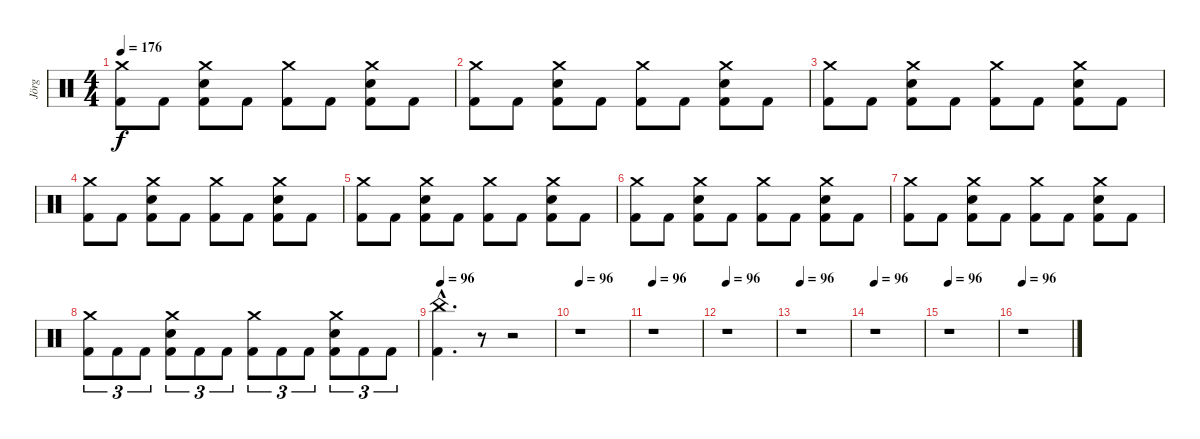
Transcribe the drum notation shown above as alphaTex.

\track ("Jörg" "Jörg") {instrument percussion}
\staff {score}
\articulation defaults
\ts (4 4)
\tempo 176
\clef neutral
\ks c
("Crash medium (hit)" "Kick (hit) 2").8{dy f} "Kick (hit) 2".8 ("Kick (hit) 2" "Crash medium (hit)" "Snare (hit) 2").8 "Kick (hit) 2".8 ("Crash medium (hit)" "Kick (hit) 2").8 "Kick (hit) 2".8 ("Kick (hit) 2" "Crash medium (hit)" "Snare (hit) 2").8 "Kick (hit) 2".8 |
("Crash medium (hit)" "Kick (hit) 2").8 "Kick (hit) 2".8 ("Kick (hit) 2" "Crash medium (hit)" "Snare (hit) 2").8 "Kick (hit) 2".8 ("Crash medium (hit)" "Kick (hit) 2").8 "Kick (hit) 2".8 ("Kick (hit) 2" "Crash medium (hit)" "Snare (hit) 2").8 "Kick (hit) 2".8 |
("Crash medium (hit)" "Kick (hit) 2").8 "Kick (hit) 2".8 ("Kick (hit) 2" "Crash medium (hit)" "Snare (hit) 2").8 "Kick (hit) 2".8 ("Crash medium (hit)" "Kick (hit) 2").8 "Kick (hit) 2".8 ("Kick (hit) 2" "Crash medium (hit)" "Snare (hit) 2").8 "Kick (hit) 2".8 |
("Crash medium (hit)" "Kick (hit) 2").8 "Kick (hit) 2".8 ("Kick (hit) 2" "Crash medium (hit)" "Snare (hit) 2").8 "Kick (hit) 2".8 ("Crash medium (hit)" "Kick (hit) 2").8 "Kick (hit) 2".8 ("Kick (hit) 2" "Crash medium (hit)" "Snare (hit) 2").8 "Kick (hit) 2".8 |
("Crash medium (hit)" "Kick (hit) 2").8 "Kick (hit) 2".8 ("Kick (hit) 2" "Crash medium (hit)" "Snare (hit) 2").8 "Kick (hit) 2".8 ("Crash medium (hit)" "Kick (hit) 2").8 "Kick (hit) 2".8 ("Kick (hit) 2" "Crash medium (hit)" "Snare (hit) 2").8 "Kick (hit) 2".8 |
("Crash medium (hit)" "Kick (hit) 2").8 "Kick (hit) 2".8 ("Kick (hit) 2" "Crash medium (hit)" "Snare (hit) 2").8 "Kick (hit) 2".8 ("Crash medium (hit)" "Kick (hit) 2").8 "Kick (hit) 2".8 ("Kick (hit) 2" "Crash medium (hit)" "Snare (hit) 2").8 "Kick (hit) 2".8 |
("Crash medium (hit)" "Kick (hit) 2").8 "Kick (hit) 2".8 ("Kick (hit) 2" "Crash medium (hit)" "Snare (hit) 2").8 "Kick (hit) 2".8 ("Crash medium (hit)" "Kick (hit) 2").8 "Kick (hit) 2".8 ("Kick (hit) 2" "Crash medium (hit)" "Snare (hit) 2").8 "Kick (hit) 2".8 |
("Crash medium (hit)" "Kick (hit) 2").8{tu (3 2)} "Kick (hit) 2".8{tu (3 2)} "Kick (hit) 2".8{tu (3 2)} ("Snare (hit) 2" "Crash medium (hit)" "Kick (hit) 2").8{tu (3 2)} "Kick (hit) 2".8{tu (3 2)} "Kick (hit) 2".8{tu (3 2)} ("Crash medium (hit)" "Kick (hit) 2").8{tu (3 2)} "Kick (hit) 2".8{tu (3 2)} "Kick (hit) 2".8{tu (3 2)} ("Snare (hit) 2" "Crash medium (hit)" "Kick (hit) 2").8{tu (3 2)} "Kick (hit) 2".8{tu (3 2)} "Kick (hit) 2".8{tu (3 2)} |
\tempo 96
("Kick (hit) 2" "China (hit)"{hac}).4{d} r.8 r.2 |
\tempo 96
r.1 |
\tempo 96
r.1 |
\tempo 96
r.1 |
\tempo 96
r.1 |
\tempo 96
r.1 |
\tempo 96
r.1 |
\tempo 96
r.1
